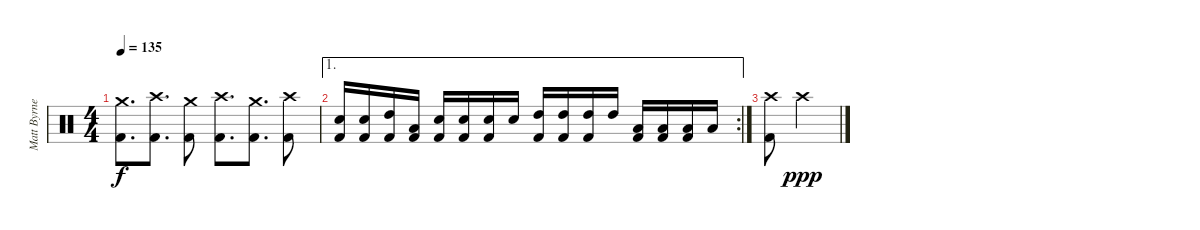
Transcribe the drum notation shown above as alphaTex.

\track ("Matt Byrne" "Matt Byrne") {instrument percussion}
\staff {score}
\articulation defaults
\ts (4 4)
\tempo 135
\clef neutral
\ks c
("Crash medium (hit)" "Kick (hit) 2").8{d dy f} ("Crash high (hit)" "Kick (hit) 2").8{d} ("Crash medium (hit)" "Kick (hit) 2").8 ("Crash high (hit)" "Kick (hit) 2").8{d} ("Crash medium (hit)" "Kick (hit) 2").8{d} ("Crash high (hit)" "Kick (hit) 2").8 |
\ae 1
\rc 2
("Electric Snare (hit)" "Kick (hit) 2").16 ("Electric Snare (hit)" "Kick (hit) 2").16 ("High Tom (hit)" "Kick (hit) 2").16 ("Low Tom (hit)" "Kick (hit) 2").16 ("Electric Snare (hit)" "Kick (hit) 2").16 ("Electric Snare (hit)" "Kick (hit) 2").16 ("Electric Snare (hit)" "Kick (hit) 2").16 "Electric Snare (hit)".16 ("High Tom (hit)" "Kick (hit) 2").16 ("High Tom (hit)" "Kick (hit) 2").16 ("High Tom (hit)" "Kick (hit) 2").16 "High Tom (hit)".16 ("Low Tom (hit)" "Kick (hit) 2").16 ("Low Tom (hit)" "Kick (hit) 2").16 ("Low Tom (hit)" "Kick (hit) 2").16 "Low Tom (hit)".16 |
("Crash high (hit)" "Kick (hit) 2").8 "Crash high (hit)".4{dy ppp}
